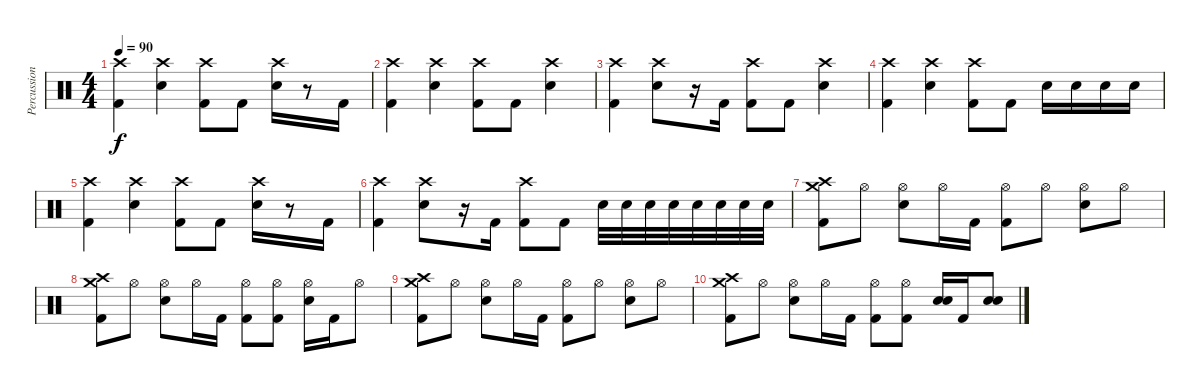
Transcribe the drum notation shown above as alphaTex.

\track ("Percussion" "Percussion") {instrument percussion}
\staff {score}
\articulation defaults
\ts (4 4)
\tempo 90
\clef neutral
\ks c
("Crash high (hit)" "Kick (hit) 2").4{dy f} ("Crash high (hit)" "Snare (hit) 2").4 ("Crash high (hit)" "Kick (hit) 2").8 "Kick (hit) 2".8 ("Crash high (hit)" "Snare (hit) 2").16 r.8 "Kick (hit) 2".16 |
("Crash high (hit)" "Kick (hit) 2").4 ("Crash high (hit)" "Snare (hit) 2").4 ("Crash high (hit)" "Kick (hit) 2").8 "Kick (hit) 2".8 ("Crash high (hit)" "Snare (hit) 2").4 |
("Crash high (hit)" "Kick (hit) 2").4 ("Crash high (hit)" "Snare (hit) 2").8 r.16 "Kick (hit) 2".16 ("Crash high (hit)" "Kick (hit) 2").8 "Kick (hit) 2".8 ("Crash high (hit)" "Snare (hit) 2").4 |
("Crash high (hit)" "Kick (hit) 2").4 ("Crash high (hit)" "Snare (hit) 2").4 ("Crash high (hit)" "Kick (hit) 2").8 "Kick (hit) 2".8 "Snare (hit) 2".16 "Snare (hit) 2".16 "Snare (hit) 2".16 "Snare (hit) 2".16 |
("Crash high (hit)" "Kick (hit) 2").4 ("Crash high (hit)" "Snare (hit) 2").4 ("Crash high (hit)" "Kick (hit) 2").8 "Kick (hit) 2".8 ("Crash high (hit)" "Snare (hit) 2").16 r.8 "Kick (hit) 2".16 |
("Crash high (hit)" "Kick (hit) 2").4 ("Crash high (hit)" "Snare (hit) 2").8 r.16 "Kick (hit) 2".16 ("Crash high (hit)" "Kick (hit) 2").8 "Kick (hit) 2".8 "Snare (hit) 2".32 "Snare (hit) 2".32 "Snare (hit) 2".32 "Snare (hit) 2".32 "Snare (hit) 2".32 "Snare (hit) 2".32 "Snare (hit) 2".32 "Snare (hit) 2".32 |
("Crash medium (hit)" "Crash high (hit)" "Kick (hit) 2").8 "Hi-Hat (open)".8 ("Hi-Hat (open)" "Snare (hit) 2").8 "Hi-Hat (open)".16 "Kick (hit) 2".16 ("Hi-Hat (open)" "Kick (hit) 2").8 "Hi-Hat (open)".8 ("Hi-Hat (open)" "Snare (hit) 2").8 "Hi-Hat (open)".8 |
("Crash medium (hit)" "Crash high (hit)" "Kick (hit) 2").8 "Hi-Hat (open)".8 ("Hi-Hat (open)" "Snare (hit) 2").8 "Hi-Hat (open)".16 "Kick (hit) 2".16 ("Hi-Hat (open)" "Kick (hit) 2").8 ("Hi-Hat (open)" "Kick (hit) 2").8 ("Hi-Hat (open)" "Snare (hit) 2").16 "Kick (hit) 2".16 "Hi-Hat (open)".8 |
("Crash medium (hit)" "Crash high (hit)" "Kick (hit) 2").8 "Hi-Hat (open)".8 ("Hi-Hat (open)" "Snare (hit) 2").8 "Hi-Hat (open)".16 "Kick (hit) 2".16 ("Hi-Hat (open)" "Kick (hit) 2").8 "Hi-Hat (open)".8 ("Hi-Hat (open)" "Snare (hit) 2").8 "Hi-Hat (open)".8 |
("Crash medium (hit)" "Crash high (hit)" "Kick (hit) 2").8 "Hi-Hat (open)".8 ("Hi-Hat (open)" "Snare (hit) 2").8 "Hi-Hat (open)".16 "Kick (hit) 2".16 ("Hi-Hat (open)" "Kick (hit) 2").8 ("Hi-Hat (open)" "Kick (hit) 2").8 ("Snare (hit) 2" "Snare (hit) 2").16 "Kick (hit) 2".16 ("Snare (hit) 2" "Snare (hit) 2").8
